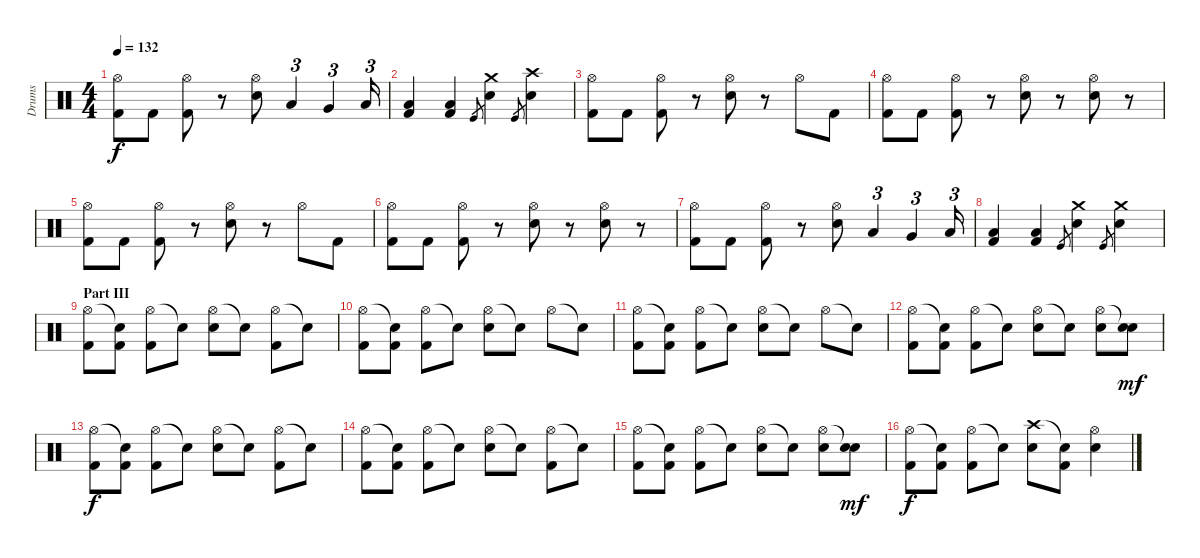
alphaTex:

\track ("Drums" "Drums") {instrument percussion}
\staff {score}
\articulation defaults
\ts (4 4)
\tempo 132
\clef neutral
\ks c
("Hi-Hat (open)" "Kick (hit) 2").8{dy f} "Kick (hit) 2".8 ("Hi-Hat (open)" "Kick (hit) 2").8 r.8 ("Hi-Hat (open)" "Electric Snare (hit)").8 "Low Tom (hit)".4{tu (3 2)} "Very Low Tom (hit)".4{tu (3 2)} "Low Floor Tom (hit)".16{tu (3 2)} |
("Low Floor Tom (hit)" "Kick (hit) 2").4 ("Low Floor Tom (hit)" "Kick (hit) 2").4 "Kick (hit)".8{gr} ("Crash medium (hit)" "Electric Snare (hit)").4 "Kick (hit)".8{gr} ("Crash high (hit)" "Electric Snare (hit)").4 |
("Hi-Hat (open)" "Kick (hit) 2").8 "Kick (hit) 2".8 ("Hi-Hat (open)" "Kick (hit) 2").8 r.8 ("Hi-Hat (open)" "Electric Snare (hit)").8 r.8 "Hi-Hat (open)".8 "Kick (hit) 2".8 |
("Hi-Hat (open)" "Kick (hit) 2").8 "Kick (hit) 2".8 ("Hi-Hat (open)" "Kick (hit) 2").8 r.8 ("Hi-Hat (open)" "Electric Snare (hit)").8 r.8 ("Hi-Hat (open)" "Electric Snare (hit)").8 r.8 |
("Hi-Hat (open)" "Kick (hit) 2").8 "Kick (hit) 2".8 ("Hi-Hat (open)" "Kick (hit) 2").8 r.8 ("Hi-Hat (open)" "Electric Snare (hit)").8 r.8 "Hi-Hat (open)".8 "Kick (hit) 2".8 |
("Hi-Hat (open)" "Kick (hit) 2").8 "Kick (hit) 2".8 ("Hi-Hat (open)" "Kick (hit) 2").8 r.8 ("Hi-Hat (open)" "Electric Snare (hit)").8 r.8 ("Hi-Hat (open)" "Electric Snare (hit)").8 r.8 |
("Hi-Hat (open)" "Kick (hit) 2").8 "Kick (hit) 2".8 ("Hi-Hat (open)" "Kick (hit) 2").8 r.8 ("Hi-Hat (open)" "Electric Snare (hit)").8 "Low Tom (hit)".4{tu (3 2)} "Very Low Tom (hit)".4{tu (3 2)} "Low Floor Tom (hit)".16{tu (3 2)} |
("Low Floor Tom (hit)" "Kick (hit) 2").4 ("Low Floor Tom (hit)" "Kick (hit) 2").4 "Kick (hit)".8{gr} ("Crash medium (hit)" "Electric Snare (hit)").4 "Kick (hit)".8{gr} ("Crash medium (hit)" "Electric Snare (hit)").4 |
\section ("" "Part III")
("Hi-Hat (open)" "Kick (hit) 2").8 ("Snare (hit)"{t} "Kick (hit) 2").8 ("Hi-Hat (open)" "Kick (hit) 2").8 "Snare (hit)"{t}.8 ("Hi-Hat (open)" "Electric Snare (hit)").8 "Snare (hit)"{t}.8 ("Hi-Hat (open)" "Kick (hit) 2").8 "Snare (hit)"{t}.8 |
("Hi-Hat (open)" "Kick (hit) 2").8 ("Snare (hit)"{t} "Kick (hit) 2").8 ("Hi-Hat (open)" "Kick (hit) 2").8 "Snare (hit)"{t}.8 ("Hi-Hat (open)" "Electric Snare (hit)").8 "Snare (hit)"{t}.8 "Hi-Hat (open)".8 "Snare (hit)"{t}.8 |
("Hi-Hat (open)" "Kick (hit) 2").8 ("Snare (hit)"{t} "Kick (hit) 2").8 ("Hi-Hat (open)" "Kick (hit) 2").8 "Snare (hit)"{t}.8 ("Hi-Hat (open)" "Electric Snare (hit)").8 "Snare (hit)"{t}.8 "Hi-Hat (open)".8 "Snare (hit)"{t}.8 |
("Hi-Hat (open)" "Kick (hit) 2").8 ("Snare (hit)"{t} "Kick (hit) 2").8 ("Hi-Hat (open)" "Kick (hit) 2").8 "Snare (hit)"{t}.8 ("Hi-Hat (open)" "Electric Snare (hit)").8 "Snare (hit)"{t}.8 ("Hi-Hat (open)" "Electric Snare (hit)").8 ("Snare (hit)"{t} "Electric Snare (hit)").8{dy mf} |
("Hi-Hat (open)" "Kick (hit) 2").8{dy f} ("Snare (hit)"{t} "Kick (hit) 2").8 ("Hi-Hat (open)" "Kick (hit) 2").8 "Snare (hit)"{t}.8 ("Hi-Hat (open)" "Electric Snare (hit)").8 "Snare (hit)"{t}.8 ("Hi-Hat (open)" "Kick (hit) 2").8 "Snare (hit)"{t}.8 |
("Hi-Hat (open)" "Kick (hit) 2").8 ("Snare (hit)"{t} "Kick (hit) 2").8 ("Hi-Hat (open)" "Kick (hit) 2").8 "Snare (hit)"{t}.8 ("Hi-Hat (open)" "Electric Snare (hit)").8 "Snare (hit)"{t}.8 ("Hi-Hat (open)" "Kick (hit) 2").8 "Snare (hit)"{t}.8 |
("Hi-Hat (open)" "Kick (hit) 2").8 ("Snare (hit)"{t} "Kick (hit) 2").8 ("Hi-Hat (open)" "Kick (hit) 2").8 "Snare (hit)"{t}.8 ("Hi-Hat (open)" "Electric Snare (hit)").8 "Snare (hit)"{t}.8 ("Hi-Hat (open)" "Electric Snare (hit)").8 ("Snare (hit)"{t} "Electric Snare (hit)").8{dy mf} |
("Hi-Hat (open)" "Kick (hit) 2").8{dy f} ("Snare (hit)"{t} "Kick (hit) 2").8 ("Hi-Hat (open)" "Kick (hit) 2").8 "Snare (hit)"{t}.8 ("Crash high (hit)" "Electric Snare (hit)").8 ("Snare (hit)"{t} "Kick (hit) 2").8 ("Hi-Hat (open)" "Electric Snare (hit)").4
